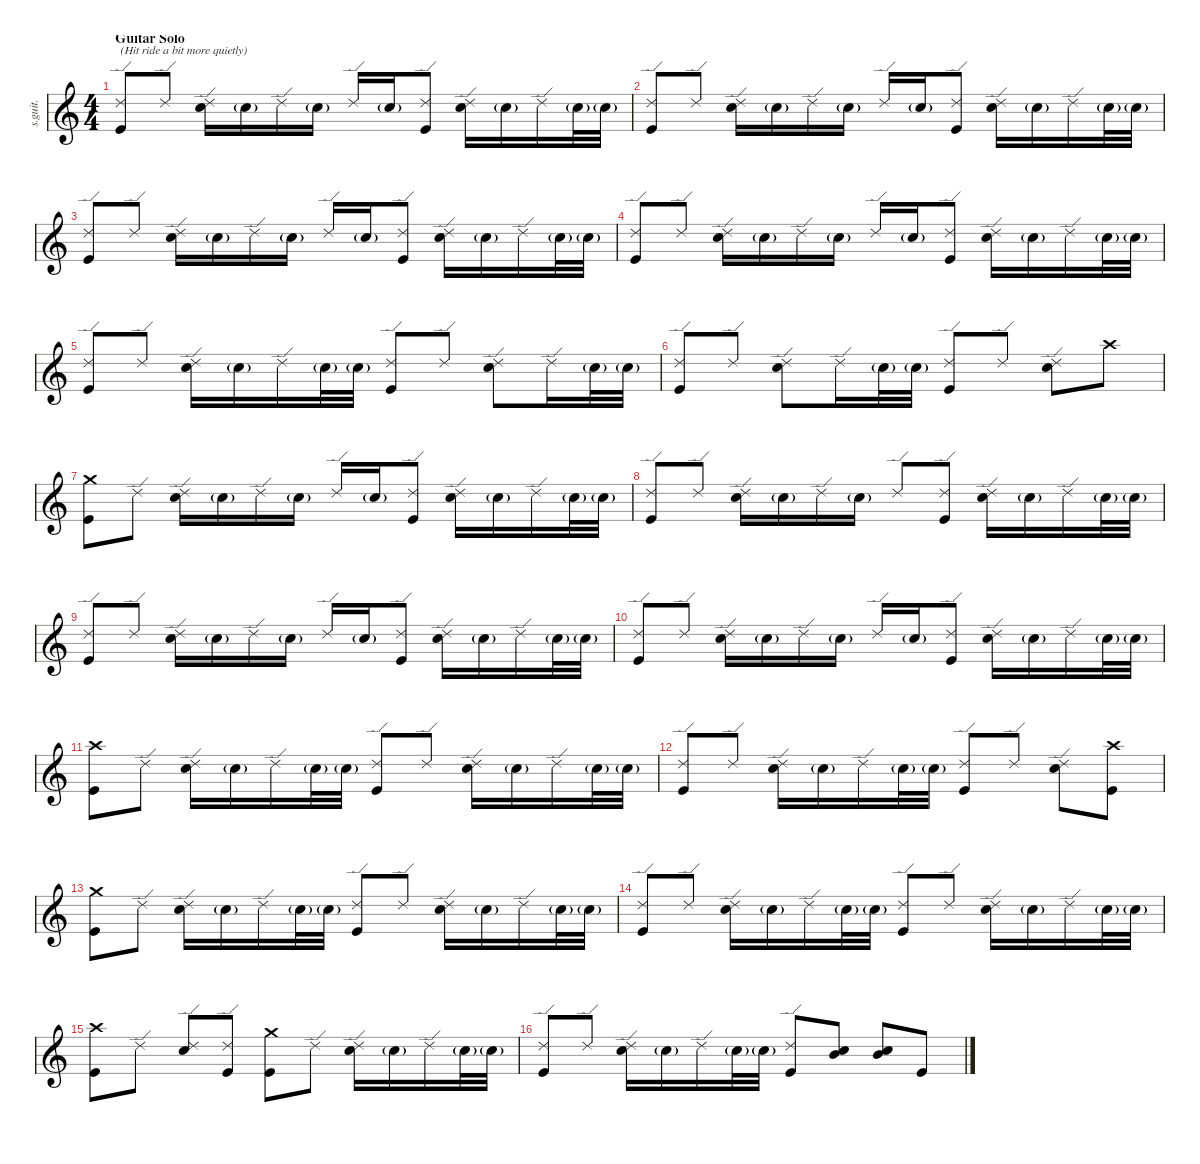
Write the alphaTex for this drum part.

\defaultSystemsLayout 4
\hideDynamics
\bracketExtendMode nobrackets
\track ("C. Smith" "s.guit.") {instrument percussion}
\staff {score}
\articulation defaults
\ts (4 4)
\section ("" "Guitar Solo")
\tempo (96 hide)
\clef g2
\ks c
("Ride (edge) 2" "Kick (hit)").8{txt "(Hit ride a bit more quietly)" lyrics (0 "") lyrics (1 "") lyrics (2 "") lyrics (3 "") lyrics (4 "") dy f} "Ride (edge) 2".8{lyrics (0 "") lyrics (1 "") lyrics (2 "") lyrics (3 "") lyrics (4 "") dy p} ("Ride (edge) 2" "Snare (hit) 2").16{lyrics (0 "") lyrics (1 "") lyrics (2 "") lyrics (3 "") lyrics (4 "")} "Snare (hit) 2"{g}.16{lyrics (0 "") lyrics (1 "") lyrics (2 "") lyrics (3 "") lyrics (4 "") dy ppp} "Ride (edge) 2".16{lyrics (0 "") lyrics (1 "") lyrics (2 "") lyrics (3 "") lyrics (4 "") dy p} "Snare (hit) 2"{g}.16{lyrics (0 "") lyrics (1 "") lyrics (2 "") lyrics (3 "") lyrics (4 "") dy ppp} "Ride (edge) 2".16{lyrics (0 "") lyrics (1 "") lyrics (2 "") lyrics (3 "") lyrics (4 "") dy p} "Snare (hit) 2"{g}.16{lyrics (0 "") lyrics (1 "") lyrics (2 "") lyrics (3 "") lyrics (4 "") dy ppp} ("Ride (edge) 2" "Kick (hit)").8{lyrics (0 "") lyrics (1 "") lyrics (2 "") lyrics (3 "") lyrics (4 "") dy f} ("Ride (edge) 2" "Snare (hit) 2").16{lyrics (0 "") lyrics (1 "") lyrics (2 "") lyrics (3 "") lyrics (4 "")} "Snare (hit) 2"{g}.16{lyrics (0 "") lyrics (1 "") lyrics (2 "") lyrics (3 "") lyrics (4 "") dy ppp} "Ride (edge) 2".16{lyrics (0 "") lyrics (1 "") lyrics (2 "") lyrics (3 "") lyrics (4 "") dy p} "Snare (hit) 2"{g}.32{lyrics (0 "") lyrics (1 "") lyrics (2 "") lyrics (3 "") lyrics (4 "") dy ppp} "Snare (hit) 2"{g}.32{lyrics (0 "") lyrics (1 "") lyrics (2 "") lyrics (3 "") lyrics (4 "")} |
("Ride (edge) 2" "Kick (hit)").8{lyrics (0 "") lyrics (1 "") lyrics (2 "") lyrics (3 "") lyrics (4 "") dy f} "Ride (edge) 2".8{lyrics (0 "") lyrics (1 "") lyrics (2 "") lyrics (3 "") lyrics (4 "") dy p} ("Ride (edge) 2" "Snare (hit) 2").16{lyrics (0 "") lyrics (1 "") lyrics (2 "") lyrics (3 "") lyrics (4 "")} "Snare (hit) 2"{g}.16{lyrics (0 "") lyrics (1 "") lyrics (2 "") lyrics (3 "") lyrics (4 "") dy ppp} "Ride (edge) 2".16{lyrics (0 "") lyrics (1 "") lyrics (2 "") lyrics (3 "") lyrics (4 "") dy p} "Snare (hit) 2"{g}.16{lyrics (0 "") lyrics (1 "") lyrics (2 "") lyrics (3 "") lyrics (4 "") dy ppp} "Ride (edge) 2".16{lyrics (0 "") lyrics (1 "") lyrics (2 "") lyrics (3 "") lyrics (4 "") dy p} "Snare (hit) 2"{g}.16{lyrics (0 "") lyrics (1 "") lyrics (2 "") lyrics (3 "") lyrics (4 "") dy ppp} ("Ride (edge) 2" "Kick (hit)").8{lyrics (0 "") lyrics (1 "") lyrics (2 "") lyrics (3 "") lyrics (4 "") dy f} ("Ride (edge) 2" "Snare (hit) 2").16{lyrics (0 "") lyrics (1 "") lyrics (2 "") lyrics (3 "") lyrics (4 "")} "Snare (hit) 2"{g}.16{lyrics (0 "") lyrics (1 "") lyrics (2 "") lyrics (3 "") lyrics (4 "") dy ppp} "Ride (edge) 2".16{lyrics (0 "") lyrics (1 "") lyrics (2 "") lyrics (3 "") lyrics (4 "") dy p} "Snare (hit) 2"{g}.32{lyrics (0 "") lyrics (1 "") lyrics (2 "") lyrics (3 "") lyrics (4 "") dy ppp} "Snare (hit) 2"{g}.32{lyrics (0 "") lyrics (1 "") lyrics (2 "") lyrics (3 "") lyrics (4 "")} |
("Ride (edge) 2" "Kick (hit)").8{lyrics (0 "") lyrics (1 "") lyrics (2 "") lyrics (3 "") lyrics (4 "") dy f} "Ride (edge) 2".8{lyrics (0 "") lyrics (1 "") lyrics (2 "") lyrics (3 "") lyrics (4 "") dy p} ("Ride (edge) 2" "Snare (hit) 2").16{lyrics (0 "") lyrics (1 "") lyrics (2 "") lyrics (3 "") lyrics (4 "")} "Snare (hit) 2"{g}.16{lyrics (0 "") lyrics (1 "") lyrics (2 "") lyrics (3 "") lyrics (4 "") dy ppp} "Ride (edge) 2".16{lyrics (0 "") lyrics (1 "") lyrics (2 "") lyrics (3 "") lyrics (4 "") dy p} "Snare (hit) 2"{g}.16{lyrics (0 "") lyrics (1 "") lyrics (2 "") lyrics (3 "") lyrics (4 "") dy ppp} "Ride (edge) 2".16{lyrics (0 "") lyrics (1 "") lyrics (2 "") lyrics (3 "") lyrics (4 "") dy p} "Snare (hit) 2"{g}.16{lyrics (0 "") lyrics (1 "") lyrics (2 "") lyrics (3 "") lyrics (4 "") dy ppp} ("Ride (edge) 2" "Kick (hit)").8{lyrics (0 "") lyrics (1 "") lyrics (2 "") lyrics (3 "") lyrics (4 "") dy f} ("Ride (edge) 2" "Snare (hit) 2").16{lyrics (0 "") lyrics (1 "") lyrics (2 "") lyrics (3 "") lyrics (4 "")} "Snare (hit) 2"{g}.16{lyrics (0 "") lyrics (1 "") lyrics (2 "") lyrics (3 "") lyrics (4 "") dy ppp} "Ride (edge) 2".16{lyrics (0 "") lyrics (1 "") lyrics (2 "") lyrics (3 "") lyrics (4 "") dy p} "Snare (hit) 2"{g}.32{lyrics (0 "") lyrics (1 "") lyrics (2 "") lyrics (3 "") lyrics (4 "") dy ppp} "Snare (hit) 2"{g}.32{lyrics (0 "") lyrics (1 "") lyrics (2 "") lyrics (3 "") lyrics (4 "")} |
("Ride (edge) 2" "Kick (hit)").8{lyrics (0 "") lyrics (1 "") lyrics (2 "") lyrics (3 "") lyrics (4 "") dy f} "Ride (edge) 2".8{lyrics (0 "") lyrics (1 "") lyrics (2 "") lyrics (3 "") lyrics (4 "") dy p} ("Ride (edge) 2" "Snare (hit) 2").16{lyrics (0 "") lyrics (1 "") lyrics (2 "") lyrics (3 "") lyrics (4 "")} "Snare (hit) 2"{g}.16{lyrics (0 "") lyrics (1 "") lyrics (2 "") lyrics (3 "") lyrics (4 "") dy ppp} "Ride (edge) 2".16{lyrics (0 "") lyrics (1 "") lyrics (2 "") lyrics (3 "") lyrics (4 "") dy p} "Snare (hit) 2"{g}.16{lyrics (0 "") lyrics (1 "") lyrics (2 "") lyrics (3 "") lyrics (4 "") dy ppp} "Ride (edge) 2".16{lyrics (0 "") lyrics (1 "") lyrics (2 "") lyrics (3 "") lyrics (4 "") dy p} "Snare (hit) 2"{g}.16{lyrics (0 "") lyrics (1 "") lyrics (2 "") lyrics (3 "") lyrics (4 "") dy ppp} ("Ride (edge) 2" "Kick (hit)").8{lyrics (0 "") lyrics (1 "") lyrics (2 "") lyrics (3 "") lyrics (4 "") dy f} ("Ride (edge) 2" "Snare (hit) 2").16{lyrics (0 "") lyrics (1 "") lyrics (2 "") lyrics (3 "") lyrics (4 "")} "Snare (hit) 2"{g}.16{lyrics (0 "") lyrics (1 "") lyrics (2 "") lyrics (3 "") lyrics (4 "") dy ppp} "Ride (edge) 2".16{lyrics (0 "") lyrics (1 "") lyrics (2 "") lyrics (3 "") lyrics (4 "") dy p} "Snare (hit) 2"{g}.32{lyrics (0 "") lyrics (1 "") lyrics (2 "") lyrics (3 "") lyrics (4 "") dy ppp} "Snare (hit) 2"{g}.32{lyrics (0 "") lyrics (1 "") lyrics (2 "") lyrics (3 "") lyrics (4 "")} |
("Ride (edge) 2" "Kick (hit)").8{lyrics (0 "") lyrics (1 "") lyrics (2 "") lyrics (3 "") lyrics (4 "") dy f} "Ride (edge) 2".8{lyrics (0 "") lyrics (1 "") lyrics (2 "") lyrics (3 "") lyrics (4 "") dy p} ("Ride (edge) 2" "Snare (hit) 2").16{lyrics (0 "") lyrics (1 "") lyrics (2 "") lyrics (3 "") lyrics (4 "")} "Snare (hit) 2"{g}.16{lyrics (0 "") lyrics (1 "") lyrics (2 "") lyrics (3 "") lyrics (4 "") dy ppp} "Ride (edge) 2".16{lyrics (0 "") lyrics (1 "") lyrics (2 "") lyrics (3 "") lyrics (4 "") dy p} "Snare (hit) 2"{g}.32{lyrics (0 "") lyrics (1 "") lyrics (2 "") lyrics (3 "") lyrics (4 "") dy ppp} "Snare (hit) 2"{g}.32{lyrics (0 "") lyrics (1 "") lyrics (2 "") lyrics (3 "") lyrics (4 "")} ("Ride (edge) 2" "Kick (hit)").8{lyrics (0 "") lyrics (1 "") lyrics (2 "") lyrics (3 "") lyrics (4 "") dy f} "Ride (edge) 2".8{lyrics (0 "") lyrics (1 "") lyrics (2 "") lyrics (3 "") lyrics (4 "") dy p} ("Ride (edge) 2" "Snare (hit) 2").8{lyrics (0 "") lyrics (1 "") lyrics (2 "") lyrics (3 "") lyrics (4 "")} "Ride (edge) 2".16{lyrics (0 "") lyrics (1 "") lyrics (2 "") lyrics (3 "") lyrics (4 "")} "Snare (hit) 2"{g}.32{lyrics (0 "") lyrics (1 "") lyrics (2 "") lyrics (3 "") lyrics (4 "") dy ppp} "Snare (hit) 2"{g}.32{lyrics (0 "") lyrics (1 "") lyrics (2 "") lyrics (3 "") lyrics (4 "")} |
("Ride (edge) 2" "Kick (hit)").8{lyrics (0 "") lyrics (1 "") lyrics (2 "") lyrics (3 "") lyrics (4 "") dy f} "Ride (edge) 2".8{lyrics (0 "") lyrics (1 "") lyrics (2 "") lyrics (3 "") lyrics (4 "") dy p} ("Ride (edge) 2" "Snare (hit) 2").8{lyrics (0 "") lyrics (1 "") lyrics (2 "") lyrics (3 "") lyrics (4 "")} "Ride (edge) 2".16{lyrics (0 "") lyrics (1 "") lyrics (2 "") lyrics (3 "") lyrics (4 "")} "Snare (hit) 2"{g}.32{lyrics (0 "") lyrics (1 "") lyrics (2 "") lyrics (3 "") lyrics (4 "") dy ppp} "Snare (hit) 2"{g}.32{lyrics (0 "") lyrics (1 "") lyrics (2 "") lyrics (3 "") lyrics (4 "")} ("Ride (edge) 2" "Kick (hit)").8{lyrics (0 "") lyrics (1 "") lyrics (2 "") lyrics (3 "") lyrics (4 "") dy f} "Ride (edge) 2".8{lyrics (0 "") lyrics (1 "") lyrics (2 "") lyrics (3 "") lyrics (4 "") dy p} ("Ride (edge) 2" "Snare (hit) 2").8{lyrics (0 "") lyrics (1 "") lyrics (2 "") lyrics (3 "") lyrics (4 "")} "Crash high (hit)".8{lyrics (0 "") lyrics (1 "") lyrics (2 "") lyrics (3 "") lyrics (4 "")} |
("Crash medium (hit)" "Kick (hit)").8{lyrics (0 "") lyrics (1 "") lyrics (2 "") lyrics (3 "") lyrics (4 "")} "Ride (edge) 2".8{lyrics (0 "") lyrics (1 "") lyrics (2 "") lyrics (3 "") lyrics (4 "")} ("Ride (edge) 2" "Snare (hit) 2").16{lyrics (0 "") lyrics (1 "") lyrics (2 "") lyrics (3 "") lyrics (4 "")} "Snare (hit) 2"{g}.16{lyrics (0 "") lyrics (1 "") lyrics (2 "") lyrics (3 "") lyrics (4 "") dy ppp} "Ride (edge) 2".16{lyrics (0 "") lyrics (1 "") lyrics (2 "") lyrics (3 "") lyrics (4 "") dy p} "Snare (hit) 2"{g}.16{lyrics (0 "") lyrics (1 "") lyrics (2 "") lyrics (3 "") lyrics (4 "") dy ppp} "Ride (edge) 2".16{lyrics (0 "") lyrics (1 "") lyrics (2 "") lyrics (3 "") lyrics (4 "") dy p} "Snare (hit) 2"{g}.16{lyrics (0 "") lyrics (1 "") lyrics (2 "") lyrics (3 "") lyrics (4 "") dy ppp} ("Ride (edge) 2" "Kick (hit)").8{lyrics (0 "") lyrics (1 "") lyrics (2 "") lyrics (3 "") lyrics (4 "") dy f} ("Ride (edge) 2" "Snare (hit) 2").16{lyrics (0 "") lyrics (1 "") lyrics (2 "") lyrics (3 "") lyrics (4 "")} "Snare (hit) 2"{g}.16{lyrics (0 "") lyrics (1 "") lyrics (2 "") lyrics (3 "") lyrics (4 "") dy ppp} "Ride (edge) 2".16{lyrics (0 "") lyrics (1 "") lyrics (2 "") lyrics (3 "") lyrics (4 "") dy p} "Snare (hit) 2"{g}.32{lyrics (0 "") lyrics (1 "") lyrics (2 "") lyrics (3 "") lyrics (4 "") dy ppp} "Snare (hit) 2"{g}.32{lyrics (0 "") lyrics (1 "") lyrics (2 "") lyrics (3 "") lyrics (4 "")} |
("Ride (edge) 2" "Kick (hit)").8{lyrics (0 "") lyrics (1 "") lyrics (2 "") lyrics (3 "") lyrics (4 "") dy f} "Ride (edge) 2".8{lyrics (0 "") lyrics (1 "") lyrics (2 "") lyrics (3 "") lyrics (4 "") dy p} ("Ride (edge) 2" "Snare (hit) 2").16{lyrics (0 "") lyrics (1 "") lyrics (2 "") lyrics (3 "") lyrics (4 "")} "Snare (hit) 2"{g}.16{lyrics (0 "") lyrics (1 "") lyrics (2 "") lyrics (3 "") lyrics (4 "") dy ppp} "Ride (edge) 2".16{lyrics (0 "") lyrics (1 "") lyrics (2 "") lyrics (3 "") lyrics (4 "") dy p} "Snare (hit) 2"{g}.16{lyrics (0 "") lyrics (1 "") lyrics (2 "") lyrics (3 "") lyrics (4 "") dy ppp} "Ride (edge) 2".8{lyrics (0 "") lyrics (1 "") lyrics (2 "") lyrics (3 "") lyrics (4 "") dy p} ("Ride (edge) 2" "Kick (hit)").8{lyrics (0 "") lyrics (1 "") lyrics (2 "") lyrics (3 "") lyrics (4 "")} ("Ride (edge) 2" "Snare (hit) 2").16{lyrics (0 "") lyrics (1 "") lyrics (2 "") lyrics (3 "") lyrics (4 "")} "Snare (hit) 2"{g}.16{lyrics (0 "") lyrics (1 "") lyrics (2 "") lyrics (3 "") lyrics (4 "") dy ppp} "Ride (edge) 2".16{lyrics (0 "") lyrics (1 "") lyrics (2 "") lyrics (3 "") lyrics (4 "") dy p} "Snare (hit) 2"{g}.32{lyrics (0 "") lyrics (1 "") lyrics (2 "") lyrics (3 "") lyrics (4 "") dy ppp} "Snare (hit) 2"{g}.32{lyrics (0 "") lyrics (1 "") lyrics (2 "") lyrics (3 "") lyrics (4 "")} |
("Ride (edge) 2" "Kick (hit)").8{lyrics (0 "") lyrics (1 "") lyrics (2 "") lyrics (3 "") lyrics (4 "") dy f} "Ride (edge) 2".8{lyrics (0 "") lyrics (1 "") lyrics (2 "") lyrics (3 "") lyrics (4 "") dy p} ("Ride (edge) 2" "Snare (hit) 2").16{lyrics (0 "") lyrics (1 "") lyrics (2 "") lyrics (3 "") lyrics (4 "")} "Snare (hit) 2"{g}.16{lyrics (0 "") lyrics (1 "") lyrics (2 "") lyrics (3 "") lyrics (4 "") dy ppp} "Ride (edge) 2".16{lyrics (0 "") lyrics (1 "") lyrics (2 "") lyrics (3 "") lyrics (4 "") dy p} "Snare (hit) 2"{g}.16{lyrics (0 "") lyrics (1 "") lyrics (2 "") lyrics (3 "") lyrics (4 "") dy ppp} "Ride (edge) 2".16{lyrics (0 "") lyrics (1 "") lyrics (2 "") lyrics (3 "") lyrics (4 "") dy p} "Snare (hit) 2"{g}.16{lyrics (0 "") lyrics (1 "") lyrics (2 "") lyrics (3 "") lyrics (4 "") dy ppp} ("Ride (edge) 2" "Kick (hit)").8{lyrics (0 "") lyrics (1 "") lyrics (2 "") lyrics (3 "") lyrics (4 "") dy f} ("Ride (edge) 2" "Snare (hit) 2").16{lyrics (0 "") lyrics (1 "") lyrics (2 "") lyrics (3 "") lyrics (4 "")} "Snare (hit) 2"{g}.16{lyrics (0 "") lyrics (1 "") lyrics (2 "") lyrics (3 "") lyrics (4 "") dy ppp} "Ride (edge) 2".16{lyrics (0 "") lyrics (1 "") lyrics (2 "") lyrics (3 "") lyrics (4 "") dy p} "Snare (hit) 2"{g}.32{lyrics (0 "") lyrics (1 "") lyrics (2 "") lyrics (3 "") lyrics (4 "") dy ppp} "Snare (hit) 2"{g}.32{lyrics (0 "") lyrics (1 "") lyrics (2 "") lyrics (3 "") lyrics (4 "")} |
("Ride (edge) 2" "Kick (hit)").8{lyrics (0 "") lyrics (1 "") lyrics (2 "") lyrics (3 "") lyrics (4 "") dy f} "Ride (edge) 2".8{lyrics (0 "") lyrics (1 "") lyrics (2 "") lyrics (3 "") lyrics (4 "") dy p} ("Ride (edge) 2" "Snare (hit) 2").16{lyrics (0 "") lyrics (1 "") lyrics (2 "") lyrics (3 "") lyrics (4 "")} "Snare (hit) 2"{g}.16{lyrics (0 "") lyrics (1 "") lyrics (2 "") lyrics (3 "") lyrics (4 "") dy ppp} "Ride (edge) 2".16{lyrics (0 "") lyrics (1 "") lyrics (2 "") lyrics (3 "") lyrics (4 "") dy p} "Snare (hit) 2"{g}.16{lyrics (0 "") lyrics (1 "") lyrics (2 "") lyrics (3 "") lyrics (4 "") dy ppp} "Ride (edge) 2".16{lyrics (0 "") lyrics (1 "") lyrics (2 "") lyrics (3 "") lyrics (4 "") dy p} "Snare (hit) 2"{g}.16{lyrics (0 "") lyrics (1 "") lyrics (2 "") lyrics (3 "") lyrics (4 "") dy ppp} ("Ride (edge) 2" "Kick (hit)").8{lyrics (0 "") lyrics (1 "") lyrics (2 "") lyrics (3 "") lyrics (4 "") dy f} ("Ride (edge) 2" "Snare (hit) 2").16{lyrics (0 "") lyrics (1 "") lyrics (2 "") lyrics (3 "") lyrics (4 "")} "Snare (hit) 2"{g}.16{lyrics (0 "") lyrics (1 "") lyrics (2 "") lyrics (3 "") lyrics (4 "") dy ppp} "Ride (edge) 2".16{lyrics (0 "") lyrics (1 "") lyrics (2 "") lyrics (3 "") lyrics (4 "") dy p} "Snare (hit) 2"{g}.32{lyrics (0 "") lyrics (1 "") lyrics (2 "") lyrics (3 "") lyrics (4 "") dy ppp} "Snare (hit) 2"{g}.32{lyrics (0 "") lyrics (1 "") lyrics (2 "") lyrics (3 "") lyrics (4 "")} |
("Crash high (hit)" "Kick (hit)").8{lyrics (0 "") lyrics (1 "") lyrics (2 "") lyrics (3 "") lyrics (4 "") dy f} "Ride (edge) 2".8{lyrics (0 "") lyrics (1 "") lyrics (2 "") lyrics (3 "") lyrics (4 "") dy p} ("Ride (edge) 2" "Snare (hit) 2").16{lyrics (0 "") lyrics (1 "") lyrics (2 "") lyrics (3 "") lyrics (4 "")} "Snare (hit) 2"{g}.16{lyrics (0 "") lyrics (1 "") lyrics (2 "") lyrics (3 "") lyrics (4 "") dy ppp} "Ride (edge) 2".16{lyrics (0 "") lyrics (1 "") lyrics (2 "") lyrics (3 "") lyrics (4 "") dy p} "Snare (hit) 2"{g}.32{lyrics (0 "") lyrics (1 "") lyrics (2 "") lyrics (3 "") lyrics (4 "") dy ppp} "Snare (hit) 2"{g}.32{lyrics (0 "") lyrics (1 "") lyrics (2 "") lyrics (3 "") lyrics (4 "")} ("Ride (edge) 2" "Kick (hit)").8{lyrics (0 "") lyrics (1 "") lyrics (2 "") lyrics (3 "") lyrics (4 "") dy f} "Ride (edge) 2".8{lyrics (0 "") lyrics (1 "") lyrics (2 "") lyrics (3 "") lyrics (4 "") dy p} ("Ride (edge) 2" "Snare (hit) 2").16{lyrics (0 "") lyrics (1 "") lyrics (2 "") lyrics (3 "") lyrics (4 "")} "Snare (hit) 2"{g}.16{lyrics (0 "") lyrics (1 "") lyrics (2 "") lyrics (3 "") lyrics (4 "") dy ppp} "Ride (edge) 2".16{lyrics (0 "") lyrics (1 "") lyrics (2 "") lyrics (3 "") lyrics (4 "") dy p} "Snare (hit) 2"{g}.32{lyrics (0 "") lyrics (1 "") lyrics (2 "") lyrics (3 "") lyrics (4 "") dy ppp} "Snare (hit) 2"{g}.32{lyrics (0 "") lyrics (1 "") lyrics (2 "") lyrics (3 "") lyrics (4 "")} |
("Ride (edge) 2" "Kick (hit)").8{lyrics (0 "") lyrics (1 "") lyrics (2 "") lyrics (3 "") lyrics (4 "") dy f} "Ride (edge) 2".8{lyrics (0 "") lyrics (1 "") lyrics (2 "") lyrics (3 "") lyrics (4 "") dy p} ("Ride (edge) 2" "Snare (hit) 2").16{lyrics (0 "") lyrics (1 "") lyrics (2 "") lyrics (3 "") lyrics (4 "")} "Snare (hit) 2"{g}.16{lyrics (0 "") lyrics (1 "") lyrics (2 "") lyrics (3 "") lyrics (4 "") dy ppp} "Ride (edge) 2".16{lyrics (0 "") lyrics (1 "") lyrics (2 "") lyrics (3 "") lyrics (4 "") dy p} "Snare (hit) 2"{g}.32{lyrics (0 "") lyrics (1 "") lyrics (2 "") lyrics (3 "") lyrics (4 "") dy ppp} "Snare (hit) 2"{g}.32{lyrics (0 "") lyrics (1 "") lyrics (2 "") lyrics (3 "") lyrics (4 "")} ("Ride (edge) 2" "Kick (hit)").8{lyrics (0 "") lyrics (1 "") lyrics (2 "") lyrics (3 "") lyrics (4 "") dy f} "Ride (edge) 2".8{lyrics (0 "") lyrics (1 "") lyrics (2 "") lyrics (3 "") lyrics (4 "") dy p} ("Ride (edge) 2" "Snare (hit) 2").8{lyrics (0 "") lyrics (1 "") lyrics (2 "") lyrics (3 "") lyrics (4 "")} ("Crash high (hit)" "Kick (hit)").8{lyrics (0 "") lyrics (1 "") lyrics (2 "") lyrics (3 "") lyrics (4 "")} |
("Crash medium (hit)" "Kick (hit)").8{lyrics (0 "") lyrics (1 "") lyrics (2 "") lyrics (3 "") lyrics (4 "")} "Ride (edge) 2".8{lyrics (0 "") lyrics (1 "") lyrics (2 "") lyrics (3 "") lyrics (4 "")} ("Ride (edge) 2" "Snare (hit) 2").16{lyrics (0 "") lyrics (1 "") lyrics (2 "") lyrics (3 "") lyrics (4 "")} "Snare (hit) 2"{g}.16{lyrics (0 "") lyrics (1 "") lyrics (2 "") lyrics (3 "") lyrics (4 "") dy ppp} "Ride (edge) 2".16{lyrics (0 "") lyrics (1 "") lyrics (2 "") lyrics (3 "") lyrics (4 "") dy p} "Snare (hit) 2"{g}.32{lyrics (0 "") lyrics (1 "") lyrics (2 "") lyrics (3 "") lyrics (4 "") dy ppp} "Snare (hit) 2"{g}.32{lyrics (0 "") lyrics (1 "") lyrics (2 "") lyrics (3 "") lyrics (4 "")} ("Ride (edge) 2" "Kick (hit)").8{lyrics (0 "") lyrics (1 "") lyrics (2 "") lyrics (3 "") lyrics (4 "") dy f} "Ride (edge) 2".8{lyrics (0 "") lyrics (1 "") lyrics (2 "") lyrics (3 "") lyrics (4 "") dy p} ("Ride (edge) 2" "Snare (hit) 2").16{lyrics (0 "") lyrics (1 "") lyrics (2 "") lyrics (3 "") lyrics (4 "")} "Snare (hit) 2"{g}.16{lyrics (0 "") lyrics (1 "") lyrics (2 "") lyrics (3 "") lyrics (4 "") dy ppp} "Ride (edge) 2".16{lyrics (0 "") lyrics (1 "") lyrics (2 "") lyrics (3 "") lyrics (4 "") dy p} "Snare (hit) 2"{g}.32{lyrics (0 "") lyrics (1 "") lyrics (2 "") lyrics (3 "") lyrics (4 "") dy ppp} "Snare (hit) 2"{g}.32{lyrics (0 "") lyrics (1 "") lyrics (2 "") lyrics (3 "") lyrics (4 "")} |
("Ride (edge) 2" "Kick (hit)").8{lyrics (0 "") lyrics (1 "") lyrics (2 "") lyrics (3 "") lyrics (4 "") dy f} "Ride (edge) 2".8{lyrics (0 "") lyrics (1 "") lyrics (2 "") lyrics (3 "") lyrics (4 "") dy p} ("Ride (edge) 2" "Snare (hit) 2").16{lyrics (0 "") lyrics (1 "") lyrics (2 "") lyrics (3 "") lyrics (4 "")} "Snare (hit) 2"{g}.16{lyrics (0 "") lyrics (1 "") lyrics (2 "") lyrics (3 "") lyrics (4 "") dy ppp} "Ride (edge) 2".16{lyrics (0 "") lyrics (1 "") lyrics (2 "") lyrics (3 "") lyrics (4 "") dy p} "Snare (hit) 2"{g}.32{lyrics (0 "") lyrics (1 "") lyrics (2 "") lyrics (3 "") lyrics (4 "") dy ppp} "Snare (hit) 2"{g}.32{lyrics (0 "") lyrics (1 "") lyrics (2 "") lyrics (3 "") lyrics (4 "")} ("Ride (edge) 2" "Kick (hit)").8{lyrics (0 "") lyrics (1 "") lyrics (2 "") lyrics (3 "") lyrics (4 "") dy f} "Ride (edge) 2".8{lyrics (0 "") lyrics (1 "") lyrics (2 "") lyrics (3 "") lyrics (4 "") dy p} ("Ride (edge) 2" "Snare (hit) 2").16{lyrics (0 "") lyrics (1 "") lyrics (2 "") lyrics (3 "") lyrics (4 "")} "Snare (hit) 2"{g}.16{lyrics (0 "") lyrics (1 "") lyrics (2 "") lyrics (3 "") lyrics (4 "") dy ppp} "Ride (edge) 2".16{lyrics (0 "") lyrics (1 "") lyrics (2 "") lyrics (3 "") lyrics (4 "") dy p} "Snare (hit) 2"{g}.32{lyrics (0 "") lyrics (1 "") lyrics (2 "") lyrics (3 "") lyrics (4 "") dy ppp} "Snare (hit) 2"{g}.32{lyrics (0 "") lyrics (1 "") lyrics (2 "") lyrics (3 "") lyrics (4 "")} |
("Crash high (hit)" "Kick (hit)").8{lyrics (0 "") lyrics (1 "") lyrics (2 "") lyrics (3 "") lyrics (4 "") dy f} "Ride (edge) 2".8{lyrics (0 "") lyrics (1 "") lyrics (2 "") lyrics (3 "") lyrics (4 "") dy p} ("Ride (edge) 2" "Snare (hit) 2").8{lyrics (0 "") lyrics (1 "") lyrics (2 "") lyrics (3 "") lyrics (4 "")} ("Ride (edge) 2" "Kick (hit)").8{lyrics (0 "") lyrics (1 "") lyrics (2 "") lyrics (3 "") lyrics (4 "")} ("Crash medium (hit)" "Kick (hit)").8{lyrics (0 "") lyrics (1 "") lyrics (2 "") lyrics (3 "") lyrics (4 "")} "Ride (edge) 2".8{lyrics (0 "") lyrics (1 "") lyrics (2 "") lyrics (3 "") lyrics (4 "")} ("Ride (edge) 2" "Snare (hit) 2").16{lyrics (0 "") lyrics (1 "") lyrics (2 "") lyrics (3 "") lyrics (4 "")} "Snare (hit) 2"{g}.16{lyrics (0 "") lyrics (1 "") lyrics (2 "") lyrics (3 "") lyrics (4 "") dy ppp} "Ride (edge) 2".16{lyrics (0 "") lyrics (1 "") lyrics (2 "") lyrics (3 "") lyrics (4 "") dy p} "Snare (hit) 2"{g}.32{lyrics (0 "") lyrics (1 "") lyrics (2 "") lyrics (3 "") lyrics (4 "") dy ppp} "Snare (hit) 2"{g}.32{lyrics (0 "") lyrics (1 "") lyrics (2 "") lyrics (3 "") lyrics (4 "")} |
("Ride (edge) 2" "Kick (hit)").8{lyrics (0 "") lyrics (1 "") lyrics (2 "") lyrics (3 "") lyrics (4 "") dy f} "Ride (edge) 2".8{lyrics (0 "") lyrics (1 "") lyrics (2 "") lyrics (3 "") lyrics (4 "") dy p} ("Ride (edge) 2" "Snare (hit) 2").16{lyrics (0 "") lyrics (1 "") lyrics (2 "") lyrics (3 "") lyrics (4 "")} "Snare (hit) 2"{g}.16{lyrics (0 "") lyrics (1 "") lyrics (2 "") lyrics (3 "") lyrics (4 "") dy ppp} "Ride (edge) 2".16{lyrics (0 "") lyrics (1 "") lyrics (2 "") lyrics (3 "") lyrics (4 "") dy p} "Snare (hit) 2"{g}.32{lyrics (0 "") lyrics (1 "") lyrics (2 "") lyrics (3 "") lyrics (4 "") dy ppp} "Snare (hit) 2"{g}.32{lyrics (0 "") lyrics (1 "") lyrics (2 "") lyrics (3 "") lyrics (4 "")} ("Ride (edge) 2" "Kick (hit)").8{lyrics (0 "") lyrics (1 "") lyrics (2 "") lyrics (3 "") lyrics (4 "") dy f} ("Mid Tom (hit)" "Snare (hit) 2").8{lyrics (0 "") lyrics (1 "") lyrics (2 "") lyrics (3 "") lyrics (4 "")} ("Mid Tom (hit)" "Snare (hit) 2").8{lyrics (0 "") lyrics (1 "") lyrics (2 "") lyrics (3 "") lyrics (4 "")} "Kick (hit)".8{lyrics (0 "") lyrics (1 "") lyrics (2 "") lyrics (3 "") lyrics (4 "")}
